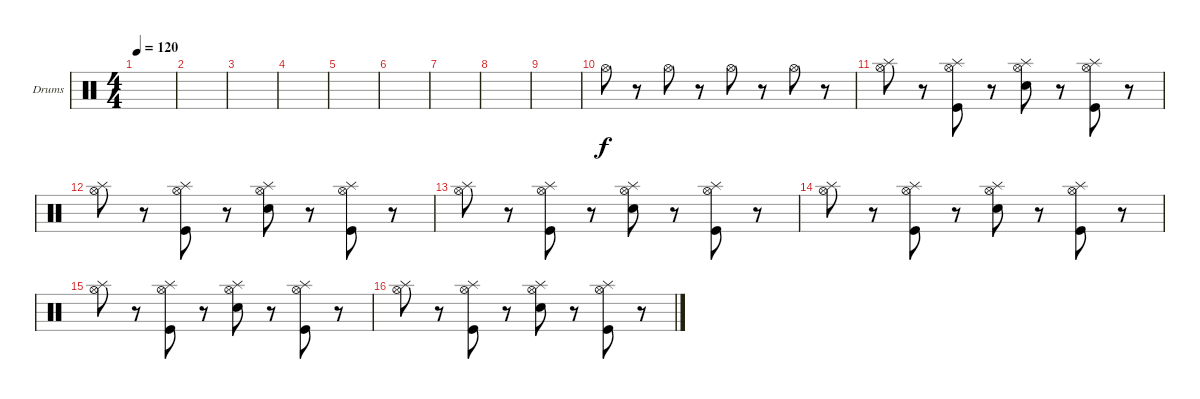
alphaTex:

\defaultSystemsLayout 4
\bracketExtendMode groupsimilarinstruments
\firstSystemTrackNameOrientation horizontal
\otherSystemsTrackNameOrientation horizontal
\track ("Drumkit" "Drums") {instrument percussion}
\staff {score}
\articulation defaults
\ts (4 4)
\tempo 120
\clef neutral
\ks c
|
|
|
|
|
|
|
\scale
0.314112 |
\scale
0.104704 |
\scale
0.273141 "Hi-Hat (open)".8 r.8 "Hi-Hat (open)".8 r.8 "Hi-Hat (open)".8 r.8 "Hi-Hat (open)".8 r.8 |
\scale
0.308042 ("Splash (hit)" "Hi-Hat (open)").8 r.8 ("Splash (hit)" "Hi-Hat (open)" "Kick (hit)").8 r.8 ("Snare (hit) 2" "Splash (hit)" "Hi-Hat (open)").8 r.8 ("Splash (hit)" "Hi-Hat (open)" "Kick (hit)").8 r.8 |
("Splash (hit)" "Hi-Hat (open)").8 r.8 ("Splash (hit)" "Hi-Hat (open)" "Kick (hit)").8 r.8 ("Snare (hit) 2" "Splash (hit)" "Hi-Hat (open)").8 r.8 ("Splash (hit)" "Hi-Hat (open)" "Kick (hit)").8 r.8 |
("Splash (hit)" "Hi-Hat (open)").8 r.8 ("Splash (hit)" "Hi-Hat (open)" "Kick (hit)").8 r.8 ("Snare (hit) 2" "Splash (hit)" "Hi-Hat (open)").8 r.8 ("Splash (hit)" "Hi-Hat (open)" "Kick (hit)").8 r.8 |
("Splash (hit)" "Hi-Hat (open)").8 r.8 ("Splash (hit)" "Hi-Hat (open)" "Kick (hit)").8 r.8 ("Snare (hit) 2" "Splash (hit)" "Hi-Hat (open)").8 r.8 ("Splash (hit)" "Hi-Hat (open)" "Kick (hit)").8 r.8 |
("Splash (hit)" "Hi-Hat (open)").8 r.8 ("Splash (hit)" "Hi-Hat (open)" "Kick (hit)").8 r.8 ("Snare (hit) 2" "Splash (hit)" "Hi-Hat (open)").8 r.8 ("Splash (hit)" "Hi-Hat (open)" "Kick (hit)").8 r.8 |
("Splash (hit)" "Hi-Hat (open)").8 r.8 ("Splash (hit)" "Hi-Hat (open)" "Kick (hit)").8 r.8 ("Snare (hit) 2" "Splash (hit)" "Hi-Hat (open)").8 r.8 ("Splash (hit)" "Hi-Hat (open)" "Kick (hit)").8 r.8
